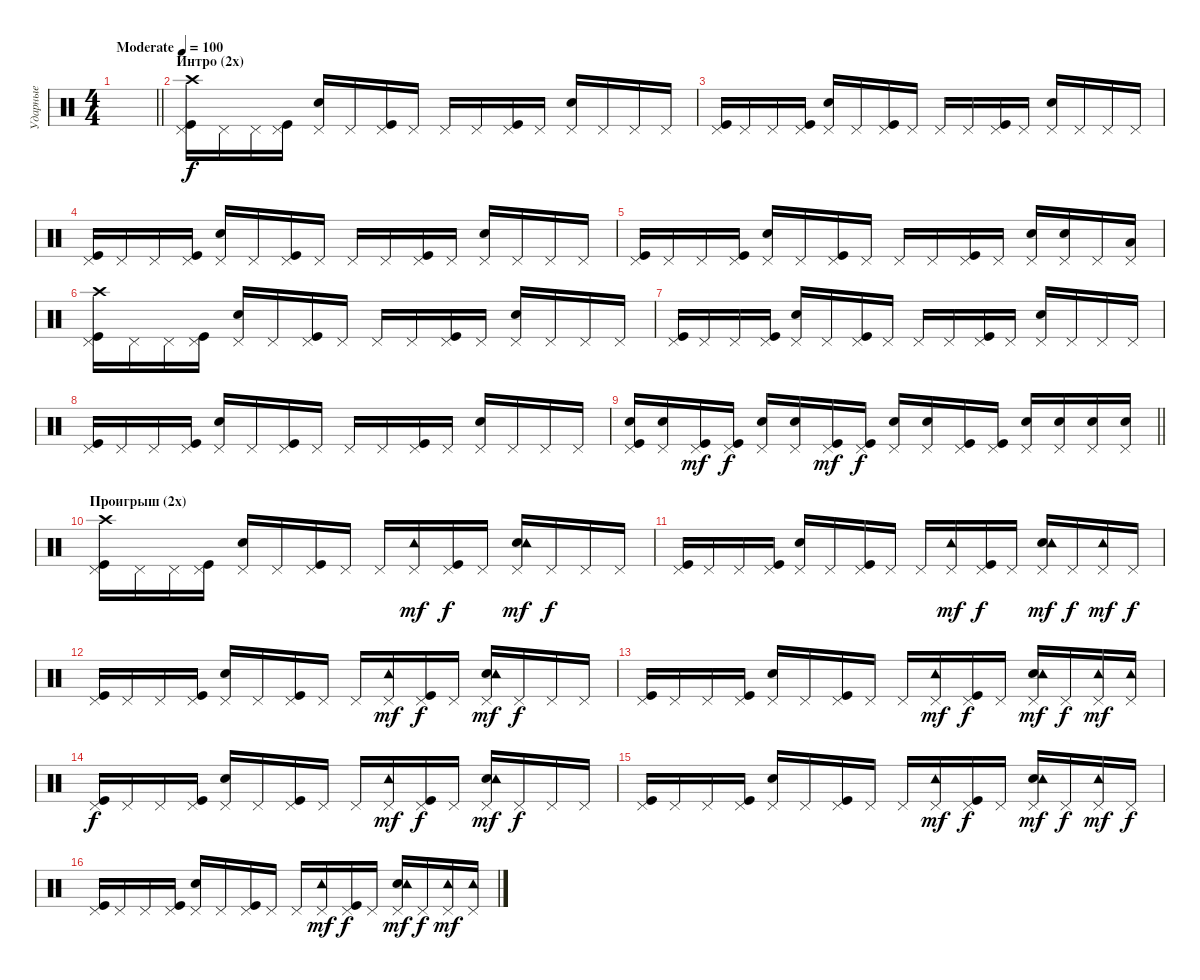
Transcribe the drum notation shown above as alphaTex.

\track ("Ударные" "Ударные") {instrument percussion}
\staff {score}
\articulation defaults
\ts (4 4)
\tempo (100 "Moderate")
\clef neutral
\barLineRight lightlight
\ks c
|
\section ("" "Интро (2x)")
("Kick (hit)" "Pedal Hi-Hat (hit)" "Crash high (hit)").16 "Pedal Hi-Hat (hit)".16 "Pedal Hi-Hat (hit)".16 ("Kick (hit)" "Pedal Hi-Hat (hit)").16 ("Pedal Hi-Hat (hit)" "Electric Snare (hit)").16 "Pedal Hi-Hat (hit)".16 ("Kick (hit)" "Pedal Hi-Hat (hit)").16 "Pedal Hi-Hat (hit)".16 "Pedal Hi-Hat (hit)".16 "Pedal Hi-Hat (hit)".16 ("Kick (hit)" "Pedal Hi-Hat (hit)").16 "Pedal Hi-Hat (hit)".16 ("Pedal Hi-Hat (hit)" "Electric Snare (hit)").16 "Pedal Hi-Hat (hit)".16 "Pedal Hi-Hat (hit)".16 "Pedal Hi-Hat (hit)".16 |
("Kick (hit)" "Pedal Hi-Hat (hit)").16 "Pedal Hi-Hat (hit)".16 "Pedal Hi-Hat (hit)".16 ("Kick (hit)" "Pedal Hi-Hat (hit)").16 ("Pedal Hi-Hat (hit)" "Electric Snare (hit)").16 "Pedal Hi-Hat (hit)".16 ("Kick (hit)" "Pedal Hi-Hat (hit)").16 "Pedal Hi-Hat (hit)".16 "Pedal Hi-Hat (hit)".16 "Pedal Hi-Hat (hit)".16 ("Kick (hit)" "Pedal Hi-Hat (hit)").16 "Pedal Hi-Hat (hit)".16 ("Pedal Hi-Hat (hit)" "Electric Snare (hit)").16 "Pedal Hi-Hat (hit)".16 "Pedal Hi-Hat (hit)".16 "Pedal Hi-Hat (hit)".16 |
("Kick (hit)" "Pedal Hi-Hat (hit)").16 "Pedal Hi-Hat (hit)".16 "Pedal Hi-Hat (hit)".16 ("Kick (hit)" "Pedal Hi-Hat (hit)").16 ("Pedal Hi-Hat (hit)" "Electric Snare (hit)").16 "Pedal Hi-Hat (hit)".16 ("Kick (hit)" "Pedal Hi-Hat (hit)").16 "Pedal Hi-Hat (hit)".16 "Pedal Hi-Hat (hit)".16 "Pedal Hi-Hat (hit)".16 ("Kick (hit)" "Pedal Hi-Hat (hit)").16 "Pedal Hi-Hat (hit)".16 ("Pedal Hi-Hat (hit)" "Electric Snare (hit)").16 "Pedal Hi-Hat (hit)".16 "Pedal Hi-Hat (hit)".16 "Pedal Hi-Hat (hit)".16 |
("Kick (hit)" "Pedal Hi-Hat (hit)").16 "Pedal Hi-Hat (hit)".16 "Pedal Hi-Hat (hit)".16 ("Kick (hit)" "Pedal Hi-Hat (hit)").16 ("Pedal Hi-Hat (hit)" "Electric Snare (hit)").16 "Pedal Hi-Hat (hit)".16 ("Kick (hit)" "Pedal Hi-Hat (hit)").16 "Pedal Hi-Hat (hit)".16 "Pedal Hi-Hat (hit)".16 "Pedal Hi-Hat (hit)".16 ("Kick (hit)" "Pedal Hi-Hat (hit)").16 "Pedal Hi-Hat (hit)".16 ("Pedal Hi-Hat (hit)" "Electric Snare (hit)").16 ("Electric Snare (hit)" "Pedal Hi-Hat (hit)").16 "Pedal Hi-Hat (hit)".16 ("Low Tom (hit)" "Pedal Hi-Hat (hit)").16 |
("Kick (hit)" "Pedal Hi-Hat (hit)" "Crash high (hit)").16 "Pedal Hi-Hat (hit)".16 "Pedal Hi-Hat (hit)".16 ("Kick (hit)" "Pedal Hi-Hat (hit)").16 ("Pedal Hi-Hat (hit)" "Electric Snare (hit)").16 "Pedal Hi-Hat (hit)".16 ("Kick (hit)" "Pedal Hi-Hat (hit)").16 "Pedal Hi-Hat (hit)".16 "Pedal Hi-Hat (hit)".16 "Pedal Hi-Hat (hit)".16 ("Kick (hit)" "Pedal Hi-Hat (hit)").16 "Pedal Hi-Hat (hit)".16 ("Pedal Hi-Hat (hit)" "Electric Snare (hit)").16 "Pedal Hi-Hat (hit)".16 "Pedal Hi-Hat (hit)".16 "Pedal Hi-Hat (hit)".16 |
("Kick (hit)" "Pedal Hi-Hat (hit)").16 "Pedal Hi-Hat (hit)".16 "Pedal Hi-Hat (hit)".16 ("Kick (hit)" "Pedal Hi-Hat (hit)").16 ("Pedal Hi-Hat (hit)" "Electric Snare (hit)").16 "Pedal Hi-Hat (hit)".16 ("Kick (hit)" "Pedal Hi-Hat (hit)").16 "Pedal Hi-Hat (hit)".16 "Pedal Hi-Hat (hit)".16 "Pedal Hi-Hat (hit)".16 ("Kick (hit)" "Pedal Hi-Hat (hit)").16 "Pedal Hi-Hat (hit)".16 ("Pedal Hi-Hat (hit)" "Electric Snare (hit)").16 "Pedal Hi-Hat (hit)".16 "Pedal Hi-Hat (hit)".16 "Pedal Hi-Hat (hit)".16 |
("Kick (hit)" "Pedal Hi-Hat (hit)").16 "Pedal Hi-Hat (hit)".16 "Pedal Hi-Hat (hit)".16 ("Kick (hit)" "Pedal Hi-Hat (hit)").16 ("Pedal Hi-Hat (hit)" "Electric Snare (hit)").16 "Pedal Hi-Hat (hit)".16 ("Kick (hit)" "Pedal Hi-Hat (hit)").16 "Pedal Hi-Hat (hit)".16 "Pedal Hi-Hat (hit)".16 "Pedal Hi-Hat (hit)".16 ("Kick (hit)" "Pedal Hi-Hat (hit)").16 "Pedal Hi-Hat (hit)".16 ("Pedal Hi-Hat (hit)" "Electric Snare (hit)").16 "Pedal Hi-Hat (hit)".16 "Pedal Hi-Hat (hit)".16 "Pedal Hi-Hat (hit)".16 |
\barLineRight lightlight
("Kick (hit)" "Pedal Hi-Hat (hit)" "Electric Snare (hit)").16 ("Pedal Hi-Hat (hit)" "Electric Snare (hit)").16 ("Kick (hit)" "Pedal Hi-Hat (hit)").16{dy mf} ("Kick (hit)" "Pedal Hi-Hat (hit)").16{dy f} ("Pedal Hi-Hat (hit)" "Electric Snare (hit)").16 ("Electric Snare (hit)" "Pedal Hi-Hat (hit)").16 ("Kick (hit)" "Pedal Hi-Hat (hit)").16{dy mf} ("Kick (hit)" "Pedal Hi-Hat (hit)").16{dy f} ("Electric Snare (hit)" "Pedal Hi-Hat (hit)").16 ("Electric Snare (hit)" "Pedal Hi-Hat (hit)").16 ("Pedal Hi-Hat (hit)" "Kick (hit)").16 ("Pedal Hi-Hat (hit)" "Kick (hit)").16 ("Electric Snare (hit)" "Pedal Hi-Hat (hit)").16 ("Electric Snare (hit)" "Pedal Hi-Hat (hit)").16 ("Electric Snare (hit)" "Pedal Hi-Hat (hit)").16 ("Electric Snare (hit)" "Pedal Hi-Hat (hit)").16 |
\section ("" "Проигрыш (2x)")
("Kick (hit)" "Pedal Hi-Hat (hit)" "Crash high (hit)").16 "Pedal Hi-Hat (hit)".16 "Pedal Hi-Hat (hit)".16 ("Kick (hit)" "Pedal Hi-Hat (hit)").16 ("Pedal Hi-Hat (hit)" "Electric Snare (hit)").16 "Pedal Hi-Hat (hit)".16 ("Kick (hit)" "Pedal Hi-Hat (hit)").16 "Pedal Hi-Hat (hit)".16 "Pedal Hi-Hat (hit)".16 ("Pedal Hi-Hat (hit)" "Tambourine (hit)").16{dy mf} ("Kick (hit)" "Pedal Hi-Hat (hit)").16{dy f} "Pedal Hi-Hat (hit)".16 ("Pedal Hi-Hat (hit)" "Electric Snare (hit)" "Tambourine (hit)").16{dy mf} "Pedal Hi-Hat (hit)".16{dy f} "Pedal Hi-Hat (hit)".16 "Pedal Hi-Hat (hit)".16 |
("Kick (hit)" "Pedal Hi-Hat (hit)").16 "Pedal Hi-Hat (hit)".16 "Pedal Hi-Hat (hit)".16 ("Kick (hit)" "Pedal Hi-Hat (hit)").16 ("Pedal Hi-Hat (hit)" "Electric Snare (hit)").16 "Pedal Hi-Hat (hit)".16 ("Kick (hit)" "Pedal Hi-Hat (hit)").16 "Pedal Hi-Hat (hit)".16 "Pedal Hi-Hat (hit)".16 ("Pedal Hi-Hat (hit)" "Tambourine (hit)").16{dy mf} ("Kick (hit)" "Pedal Hi-Hat (hit)").16{dy f} "Pedal Hi-Hat (hit)".16 ("Pedal Hi-Hat (hit)" "Electric Snare (hit)" "Tambourine (hit)").16{dy mf} "Pedal Hi-Hat (hit)".16{dy f} ("Pedal Hi-Hat (hit)" "Tambourine (hit)").16{dy mf} "Pedal Hi-Hat (hit)".16{dy f} |
("Kick (hit)" "Pedal Hi-Hat (hit)").16 "Pedal Hi-Hat (hit)".16 "Pedal Hi-Hat (hit)".16 ("Kick (hit)" "Pedal Hi-Hat (hit)").16 ("Pedal Hi-Hat (hit)" "Electric Snare (hit)").16 "Pedal Hi-Hat (hit)".16 ("Kick (hit)" "Pedal Hi-Hat (hit)").16 "Pedal Hi-Hat (hit)".16 "Pedal Hi-Hat (hit)".16 ("Pedal Hi-Hat (hit)" "Tambourine (hit)").16{dy mf} ("Kick (hit)" "Pedal Hi-Hat (hit)").16{dy f} "Pedal Hi-Hat (hit)".16 ("Pedal Hi-Hat (hit)" "Electric Snare (hit)" "Tambourine (hit)").16{dy mf} "Pedal Hi-Hat (hit)".16{dy f} "Pedal Hi-Hat (hit)".16 "Pedal Hi-Hat (hit)".16 |
("Kick (hit)" "Pedal Hi-Hat (hit)").16 "Pedal Hi-Hat (hit)".16 "Pedal Hi-Hat (hit)".16 ("Kick (hit)" "Pedal Hi-Hat (hit)").16 ("Pedal Hi-Hat (hit)" "Electric Snare (hit)").16 "Pedal Hi-Hat (hit)".16 ("Kick (hit)" "Pedal Hi-Hat (hit)").16 "Pedal Hi-Hat (hit)".16 "Pedal Hi-Hat (hit)".16 ("Pedal Hi-Hat (hit)" "Tambourine (hit)").16{dy mf} ("Kick (hit)" "Pedal Hi-Hat (hit)").16{dy f} "Pedal Hi-Hat (hit)".16 ("Pedal Hi-Hat (hit)" "Electric Snare (hit)" "Tambourine (hit)").16{dy mf} "Pedal Hi-Hat (hit)".16{dy f} ("Pedal Hi-Hat (hit)" "Tambourine (hit)").16{dy mf} ("Pedal Hi-Hat (hit)" "Tambourine (hit)").16 |
("Kick (hit)" "Pedal Hi-Hat (hit)").16{dy f} "Pedal Hi-Hat (hit)".16 "Pedal Hi-Hat (hit)".16 ("Kick (hit)" "Pedal Hi-Hat (hit)").16 ("Pedal Hi-Hat (hit)" "Electric Snare (hit)").16 "Pedal Hi-Hat (hit)".16 ("Kick (hit)" "Pedal Hi-Hat (hit)").16 "Pedal Hi-Hat (hit)".16 "Pedal Hi-Hat (hit)".16 ("Pedal Hi-Hat (hit)" "Tambourine (hit)").16{dy mf} ("Kick (hit)" "Pedal Hi-Hat (hit)").16{dy f} "Pedal Hi-Hat (hit)".16 ("Pedal Hi-Hat (hit)" "Electric Snare (hit)" "Tambourine (hit)").16{dy mf} "Pedal Hi-Hat (hit)".16{dy f} "Pedal Hi-Hat (hit)".16 "Pedal Hi-Hat (hit)".16 |
("Kick (hit)" "Pedal Hi-Hat (hit)").16 "Pedal Hi-Hat (hit)".16 "Pedal Hi-Hat (hit)".16 ("Kick (hit)" "Pedal Hi-Hat (hit)").16 ("Pedal Hi-Hat (hit)" "Electric Snare (hit)").16 "Pedal Hi-Hat (hit)".16 ("Kick (hit)" "Pedal Hi-Hat (hit)").16 "Pedal Hi-Hat (hit)".16 "Pedal Hi-Hat (hit)".16 ("Pedal Hi-Hat (hit)" "Tambourine (hit)").16{dy mf} ("Kick (hit)" "Pedal Hi-Hat (hit)").16{dy f} "Pedal Hi-Hat (hit)".16 ("Pedal Hi-Hat (hit)" "Electric Snare (hit)" "Tambourine (hit)").16{dy mf} "Pedal Hi-Hat (hit)".16{dy f} ("Pedal Hi-Hat (hit)" "Tambourine (hit)").16{dy mf} "Pedal Hi-Hat (hit)".16{dy f} |
("Kick (hit)" "Pedal Hi-Hat (hit)").16 "Pedal Hi-Hat (hit)".16 "Pedal Hi-Hat (hit)".16 ("Kick (hit)" "Pedal Hi-Hat (hit)").16 ("Pedal Hi-Hat (hit)" "Electric Snare (hit)").16 "Pedal Hi-Hat (hit)".16 ("Kick (hit)" "Pedal Hi-Hat (hit)").16 "Pedal Hi-Hat (hit)".16 "Pedal Hi-Hat (hit)".16 ("Pedal Hi-Hat (hit)" "Tambourine (hit)").16{dy mf} ("Kick (hit)" "Pedal Hi-Hat (hit)").16{dy f} "Pedal Hi-Hat (hit)".16 ("Pedal Hi-Hat (hit)" "Electric Snare (hit)" "Tambourine (hit)").16{dy mf} "Pedal Hi-Hat (hit)".16{dy f} ("Pedal Hi-Hat (hit)" "Tambourine (hit)").16{dy mf} ("Pedal Hi-Hat (hit)" "Tambourine (hit)").16
